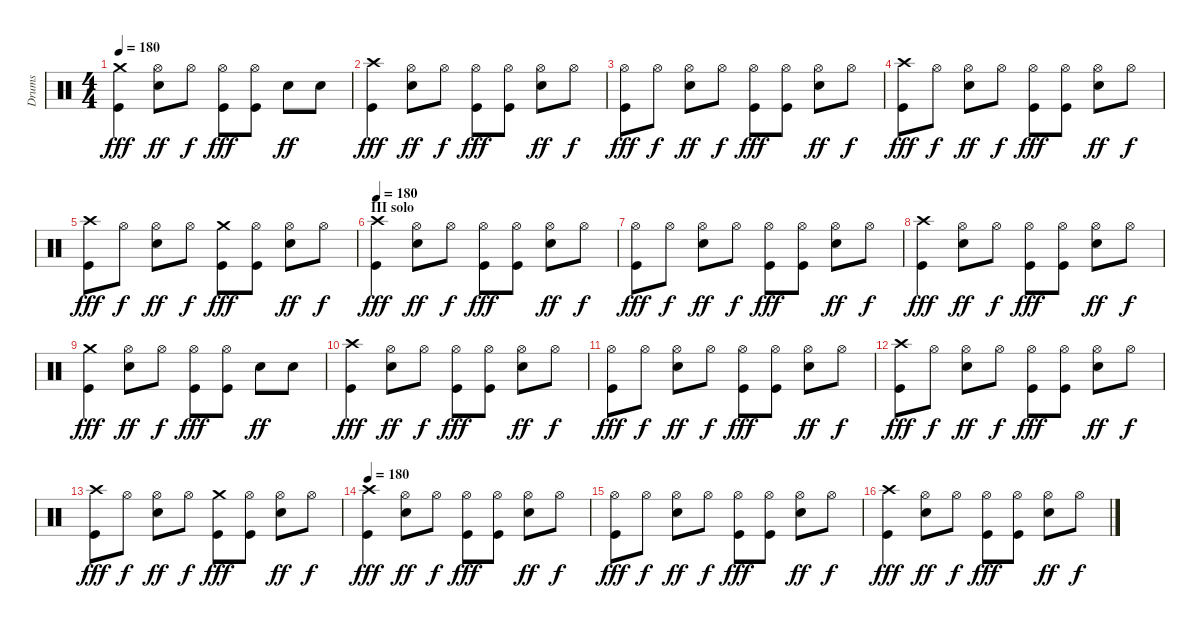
\track ("Drums" "Drums") {instrument percussion}
\staff {score}
\articulation defaults
\ts (4 4)
\tempo 180
\clef neutral
\ks aminor
("Crash medium (hit)" "Kick (hit)").4{dy fff} ("Hi-Hat (open)" "Snare (hit) 2").8{dy ff} "Hi-Hat (open)".8{dy f} ("Hi-Hat (open)" "Kick (hit)").8{dy fff} ("Hi-Hat (open)" "Kick (hit)").8 "Snare (hit) 2".8{dy ff} "Snare (hit) 2".8 |
("Crash high (hit)" "Kick (hit)").4{dy fff} ("Hi-Hat (open)" "Snare (hit) 2").8{dy ff} "Hi-Hat (open)".8{dy f} ("Hi-Hat (open)" "Kick (hit)").8{dy fff} ("Hi-Hat (open)" "Kick (hit)").8 ("Hi-Hat (open)" "Snare (hit) 2").8{dy ff} "Hi-Hat (open)".8{dy f} |
("Hi-Hat (open)" "Kick (hit)").8{dy fff} "Hi-Hat (open)".8{dy f} ("Hi-Hat (open)" "Snare (hit) 2").8{dy ff} "Hi-Hat (open)".8{dy f} ("Hi-Hat (open)" "Kick (hit)").8{dy fff} ("Hi-Hat (open)" "Kick (hit)").8 ("Hi-Hat (open)" "Snare (hit) 2").8{dy ff} "Hi-Hat (open)".8{dy f} |
("Crash high (hit)" "Kick (hit)").8{dy fff} "Hi-Hat (open)".8{dy f} ("Hi-Hat (open)" "Snare (hit) 2").8{dy ff} "Hi-Hat (open)".8{dy f} ("Hi-Hat (open)" "Kick (hit)").8{dy fff} ("Hi-Hat (open)" "Kick (hit)").8 ("Hi-Hat (open)" "Snare (hit) 2").8{dy ff} "Hi-Hat (open)".8{dy f} |
("Crash high (hit)" "Kick (hit)").8{dy fff} "Hi-Hat (open)".8{dy f} ("Hi-Hat (open)" "Snare (hit) 2").8{dy ff} "Hi-Hat (open)".8{dy f} ("Crash medium (hit)" "Kick (hit)").8{dy fff} ("Hi-Hat (open)" "Kick (hit)").8 ("Hi-Hat (open)" "Snare (hit) 2").8{dy ff} "Hi-Hat (open)".8{dy f} |
\section ("" "III solo")
\tempo 180
("Crash high (hit)" "Kick (hit)").4{dy fff} ("Hi-Hat (open)" "Snare (hit) 2").8{dy ff} "Hi-Hat (open)".8{dy f} ("Hi-Hat (open)" "Kick (hit)").8{dy fff} ("Hi-Hat (open)" "Kick (hit)").8 ("Hi-Hat (open)" "Snare (hit) 2").8{dy ff} "Hi-Hat (open)".8{dy f} |
("Hi-Hat (open)" "Kick (hit)").8{dy fff} "Hi-Hat (open)".8{dy f} ("Hi-Hat (open)" "Snare (hit) 2").8{dy ff} "Hi-Hat (open)".8{dy f} ("Hi-Hat (open)" "Kick (hit)").8{dy fff} ("Hi-Hat (open)" "Kick (hit)").8 ("Hi-Hat (open)" "Snare (hit) 2").8{dy ff} "Hi-Hat (open)".8{dy f} |
("Crash high (hit)" "Kick (hit)").4{dy fff} ("Hi-Hat (open)" "Snare (hit) 2").8{dy ff} "Hi-Hat (open)".8{dy f} ("Hi-Hat (open)" "Kick (hit)").8{dy fff} ("Hi-Hat (open)" "Kick (hit)").8 ("Hi-Hat (open)" "Snare (hit) 2").8{dy ff} "Hi-Hat (open)".8{dy f} |
("Crash medium (hit)" "Kick (hit)").4{dy fff} ("Hi-Hat (open)" "Snare (hit) 2").8{dy ff} "Hi-Hat (open)".8{dy f} ("Hi-Hat (open)" "Kick (hit)").8{dy fff} ("Hi-Hat (open)" "Kick (hit)").8 "Snare (hit) 2".8{dy ff} "Snare (hit) 2".8 |
("Crash high (hit)" "Kick (hit)").4{dy fff} ("Hi-Hat (open)" "Snare (hit) 2").8{dy ff} "Hi-Hat (open)".8{dy f} ("Hi-Hat (open)" "Kick (hit)").8{dy fff} ("Hi-Hat (open)" "Kick (hit)").8 ("Hi-Hat (open)" "Snare (hit) 2").8{dy ff} "Hi-Hat (open)".8{dy f} |
("Hi-Hat (open)" "Kick (hit)").8{dy fff} "Hi-Hat (open)".8{dy f} ("Hi-Hat (open)" "Snare (hit) 2").8{dy ff} "Hi-Hat (open)".8{dy f} ("Hi-Hat (open)" "Kick (hit)").8{dy fff} ("Hi-Hat (open)" "Kick (hit)").8 ("Hi-Hat (open)" "Snare (hit) 2").8{dy ff} "Hi-Hat (open)".8{dy f} |
("Crash high (hit)" "Kick (hit)").8{dy fff} "Hi-Hat (open)".8{dy f} ("Hi-Hat (open)" "Snare (hit) 2").8{dy ff} "Hi-Hat (open)".8{dy f} ("Hi-Hat (open)" "Kick (hit)").8{dy fff} ("Hi-Hat (open)" "Kick (hit)").8 ("Hi-Hat (open)" "Snare (hit) 2").8{dy ff} "Hi-Hat (open)".8{dy f} |
("Crash high (hit)" "Kick (hit)").8{dy fff} "Hi-Hat (open)".8{dy f} ("Hi-Hat (open)" "Snare (hit) 2").8{dy ff} "Hi-Hat (open)".8{dy f} ("Crash medium (hit)" "Kick (hit)").8{dy fff} ("Hi-Hat (open)" "Kick (hit)").8 ("Hi-Hat (open)" "Snare (hit) 2").8{dy ff} "Hi-Hat (open)".8{dy f} |
\tempo 180
("Crash high (hit)" "Kick (hit)").4{dy fff} ("Hi-Hat (open)" "Snare (hit) 2").8{dy ff} "Hi-Hat (open)".8{dy f} ("Hi-Hat (open)" "Kick (hit)").8{dy fff} ("Hi-Hat (open)" "Kick (hit)").8 ("Hi-Hat (open)" "Snare (hit) 2").8{dy ff} "Hi-Hat (open)".8{dy f} |
("Hi-Hat (open)" "Kick (hit)").8{dy fff} "Hi-Hat (open)".8{dy f} ("Hi-Hat (open)" "Snare (hit) 2").8{dy ff} "Hi-Hat (open)".8{dy f} ("Hi-Hat (open)" "Kick (hit)").8{dy fff} ("Hi-Hat (open)" "Kick (hit)").8 ("Hi-Hat (open)" "Snare (hit) 2").8{dy ff} "Hi-Hat (open)".8{dy f} |
("Crash high (hit)" "Kick (hit)").4{dy fff} ("Hi-Hat (open)" "Snare (hit) 2").8{dy ff} "Hi-Hat (open)".8{dy f} ("Hi-Hat (open)" "Kick (hit)").8{dy fff} ("Hi-Hat (open)" "Kick (hit)").8 ("Hi-Hat (open)" "Snare (hit) 2").8{dy ff} "Hi-Hat (open)".8{dy f}
